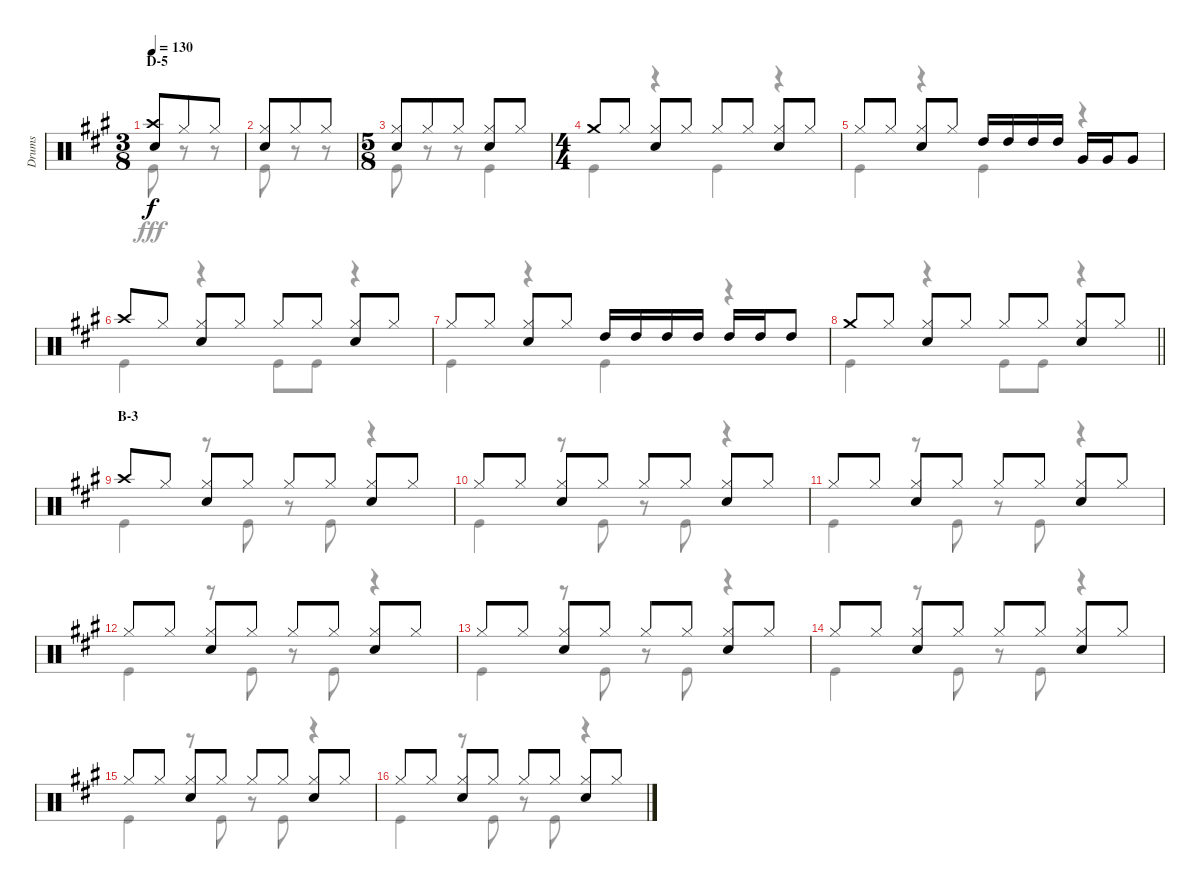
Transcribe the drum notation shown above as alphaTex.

\track ("Drums" "Drums") {instrument percussion}
\staff {score}
\articulation defaults
\voice
\ts (3 8)
\section ("" "D-5")
\tempo 130
\clef neutral
\ks a
("Crash high (hit)" "Snare (hit) 2").8{dy f} "Hi-Hat (closed)".8 "Hi-Hat (closed)".8 |
("Hi-Hat (closed)" "Snare (hit) 2").8 "Hi-Hat (closed)".8 "Hi-Hat (closed)".8 |
\ts (5 8)
("Hi-Hat (closed)" "Snare (hit) 2").8 "Hi-Hat (closed)".8 "Hi-Hat (closed)".8 ("Hi-Hat (closed)" "Snare (hit) 2").8 "Hi-Hat (closed)".8 |
\ts (4 4)
"Crash medium (hit)".8 "Hi-Hat (closed)".8 ("Hi-Hat (closed)" "Snare (hit) 2").8 "Hi-Hat (closed)".8 "Hi-Hat (closed)".8 "Hi-Hat (closed)".8 ("Hi-Hat (closed)" "Snare (hit) 2").8 "Hi-Hat (closed)".8 |
"Hi-Hat (closed)".8 "Hi-Hat (closed)".8 ("Hi-Hat (closed)" "Snare (hit) 2").8 "Hi-Hat (closed)".8 "High Tom (hit)".16 "High Tom (hit)".16 "High Tom (hit)".16 "High Tom (hit)".16 "Very Low Tom (hit)".16 "Very Low Tom (hit)".16 "Very Low Tom (hit)".8 |
"Crash high (hit)".8 "Hi-Hat (closed)".8 ("Hi-Hat (closed)" "Snare (hit) 2").8 "Hi-Hat (closed)".8 "Hi-Hat (closed)".8 "Hi-Hat (closed)".8 ("Hi-Hat (closed)" "Snare (hit) 2").8 "Hi-Hat (closed)".8 |
"Hi-Hat (closed)".8 "Hi-Hat (closed)".8 ("Hi-Hat (closed)" "Snare (hit) 2").8 "Hi-Hat (closed)".8 "High Tom (hit)".16 "High Tom (hit)".16 "High Tom (hit)".16 "High Tom (hit)".16 "High Tom (hit)".16 "High Tom (hit)".16 "High Tom (hit)".8 |
\barLineRight lightlight "Crash medium (hit)".8 "Hi-Hat (closed)".8
("Hi-Hat (closed)" "Snare (hit) 2").8 "Hi-Hat (closed)".8 "Hi-Hat (closed)".8 "Hi-Hat (closed)".8 ("Hi-Hat (closed)" "Snare (hit) 2").8 "Hi-Hat (closed)".8 |
\section ("" "B-3")
"Crash high (hit)".8 "Hi-Hat (closed)".8 ("Hi-Hat (closed)" "Snare (hit) 2").8 "Hi-Hat (closed)".8 "Hi-Hat (closed)".8 "Hi-Hat (closed)".8 ("Hi-Hat (closed)" "Snare (hit) 2").8 "Hi-Hat (closed)".8 |
"Hi-Hat (closed)".8 "Hi-Hat (closed)".8 ("Hi-Hat (closed)" "Snare (hit) 2").8 "Hi-Hat (closed)".8 "Hi-Hat (closed)".8 "Hi-Hat (closed)".8 ("Hi-Hat (closed)" "Snare (hit) 2").8 "Hi-Hat (closed)".8 |
"Hi-Hat (closed)".8 "Hi-Hat (closed)".8 ("Hi-Hat (closed)" "Snare (hit) 2").8 "Hi-Hat (closed)".8 "Hi-Hat (closed)".8 "Hi-Hat (closed)".8 ("Hi-Hat (closed)" "Snare (hit) 2").8 "Hi-Hat (closed)".8 |
"Hi-Hat (closed)".8 "Hi-Hat (closed)".8 ("Hi-Hat (closed)" "Snare (hit) 2").8 "Hi-Hat (closed)".8 "Hi-Hat (closed)".8 "Hi-Hat (closed)".8 ("Hi-Hat (closed)" "Snare (hit) 2").8 "Hi-Hat (closed)".8 |
"Hi-Hat (closed)".8 "Hi-Hat (closed)".8 ("Hi-Hat (closed)" "Snare (hit) 2").8 "Hi-Hat (closed)".8 "Hi-Hat (closed)".8 "Hi-Hat (closed)".8 ("Hi-Hat (closed)" "Snare (hit) 2").8 "Hi-Hat (closed)".8 |
"Hi-Hat (closed)".8 "Hi-Hat (closed)".8 ("Hi-Hat (closed)" "Snare (hit) 2").8 "Hi-Hat (closed)".8 "Hi-Hat (closed)".8 "Hi-Hat (closed)".8 ("Hi-Hat (closed)" "Snare (hit) 2").8 "Hi-Hat (closed)".8 |
"Hi-Hat (closed)".8 "Hi-Hat (closed)".8 ("Hi-Hat (closed)" "Snare (hit) 2").8 "Hi-Hat (closed)".8 "Hi-Hat (closed)".8 "Hi-Hat (closed)".8 ("Hi-Hat (closed)" "Snare (hit) 2").8 "Hi-Hat (closed)".8 |
"Hi-Hat (closed)".8 "Hi-Hat (closed)".8 ("Hi-Hat (closed)" "Snare (hit) 2").8 "Hi-Hat (closed)".8 "Hi-Hat (closed)".8 "Hi-Hat (closed)".8 ("Hi-Hat (closed)" "Snare (hit) 2").8 "Hi-Hat (closed)".8
\voice
\clef neutral
\ottava regular
\simile none
\ks a "Kick (hit)".8{dy fff}
r.8 r.8 |
"Kick (hit)".8 r.8 r.8 |
"Kick (hit)".8 r.8 r.8 "Kick (hit)".4 |
"Kick (hit)".4 r.4 "Kick (hit)".4 r.4 |
"Kick (hit)".4 r.4 "Kick (hit)".4 r.4 |
"Kick (hit)".4 r.4 "Kick (hit)".8 "Kick (hit)".8 r.4 |
"Kick (hit)".4 r.4 "Kick (hit)".4 r.4 |
\barLineRight lightlight "Kick (hit)".4
r.4 "Kick (hit)".8 "Kick (hit)".8 r.4 |
"Kick (hit)".4 r.8 "Kick (hit)".8 r.8 "Kick (hit)".8 r.4 |
"Kick (hit)".4 r.8 "Kick (hit)".8 r.8 "Kick (hit)".8 r.4 |
"Kick (hit)".4 r.8 "Kick (hit)".8 r.8 "Kick (hit)".8 r.4 |
"Kick (hit)".4 r.8 "Kick (hit)".8 r.8 "Kick (hit)".8 r.4 |
"Kick (hit)".4 r.8 "Kick (hit)".8 r.8 "Kick (hit)".8 r.4 |
"Kick (hit)".4 r.8 "Kick (hit)".8 r.8 "Kick (hit)".8 r.4 |
"Kick (hit)".4 r.8 "Kick (hit)".8 r.8 "Kick (hit)".8 r.4 |
"Kick (hit)".4 r.8 "Kick (hit)".8 r.8 "Kick (hit)".8 r.4
